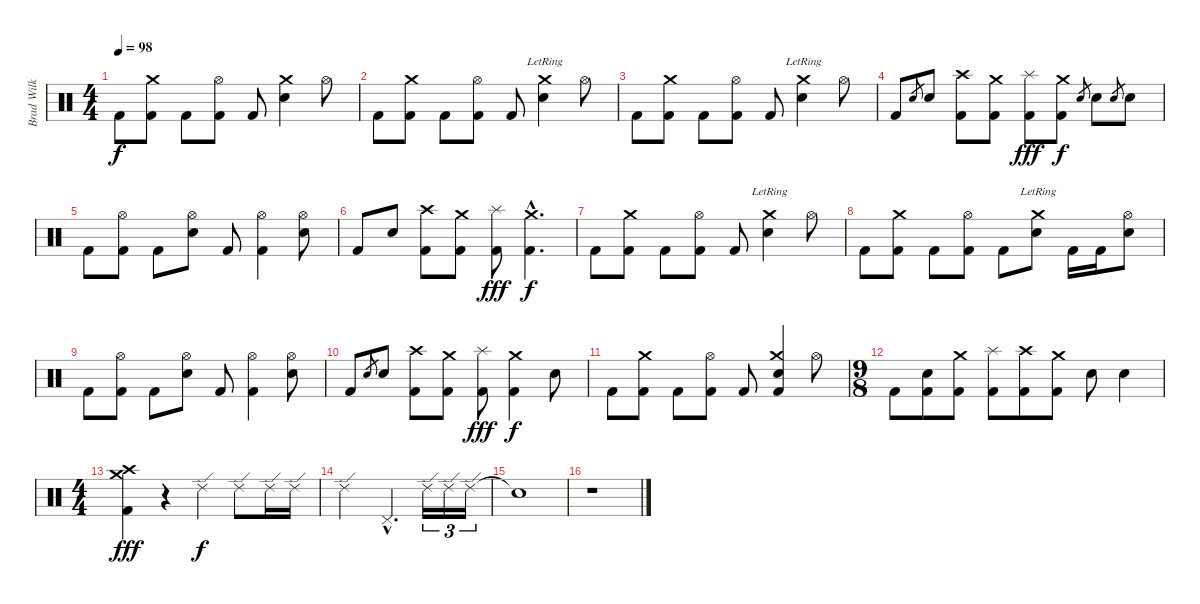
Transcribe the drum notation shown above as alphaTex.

\track ("Brad Wilk" "Brad Wilk") {instrument percussion}
\staff {score}
\articulation defaults
\ts (4 4)
\tempo 98
\clef neutral
\ks c "Kick (hit) 2".8{dy f}
("Crash medium (hit)" "Kick (hit) 2").8 "Kick (hit) 2".8 ("Hi-Hat (open)" "Kick (hit) 2").8 "Kick (hit) 2".8 ("Crash medium (hit)" "Electric Snare (hit)").4 "Hi-Hat (open)".8 |
"Kick (hit) 2".8 ("Crash medium (hit)" "Kick (hit) 2").8 "Kick (hit) 2".8 ("Hi-Hat (open)" "Kick (hit) 2").8 "Kick (hit) 2".8 ("Crash medium (hit)" "Electric Snare (hit)"{lr}).4 "Hi-Hat (open)".8 |
"Kick (hit) 2".8 ("Crash medium (hit)" "Kick (hit) 2").8 "Kick (hit) 2".8 ("Hi-Hat (open)" "Kick (hit) 2").8 "Kick (hit) 2".8 ("Crash medium (hit)" "Electric Snare (hit)"{lr}).4 "Hi-Hat (open)".8 |
"Kick (hit) 2".8 "Electric Snare (hit)".8{gr} "Electric Snare (hit)".8 ("Crash high (hit)" "Kick (hit) 2").8 ("Crash medium (hit)" "Kick (hit) 2").8 ("Splash (hit)" "Kick (hit) 2").8{dy fff} ("Crash medium (hit)" "Kick (hit) 2").8{dy f} "Electric Snare (hit)".8{gr} "Electric Snare (hit)".8 "Electric Snare (hit)".8{gr} "Electric Snare (hit)".8 |
"Kick (hit) 2".8 ("Hi-Hat (open)" "Kick (hit) 2").8 "Kick (hit) 2".8 ("Hi-Hat (open)" "Electric Snare (hit)").8 "Kick (hit) 2".8 ("Hi-Hat (open)" "Kick (hit) 2").4 ("Hi-Hat (open)" "Electric Snare (hit)").8 |
"Kick (hit) 2".8 "Electric Snare (hit)".8 ("Crash high (hit)" "Kick (hit) 2").8 ("Crash medium (hit)" "Kick (hit) 2").8 ("Splash (hit)" "Kick (hit) 2").8{dy fff} ("Crash medium (hit)"{hac} "Kick (hit) 2"{hac}).4{d dy f} |
"Kick (hit) 2".8 ("Crash medium (hit)" "Kick (hit) 2").8 "Kick (hit) 2".8 ("Hi-Hat (open)" "Kick (hit) 2").8 "Kick (hit) 2".8 ("Crash medium (hit)" "Electric Snare (hit)"{lr}).4 "Hi-Hat (open)".8 |
"Kick (hit) 2".8 ("Crash medium (hit)" "Kick (hit) 2").8 "Kick (hit) 2".8 ("Hi-Hat (open)" "Kick (hit) 2").8 "Kick (hit) 2".8 ("Crash medium (hit)" "Electric Snare (hit)"{lr}).8 "Kick (hit) 2".16 "Kick (hit) 2".16 ("Hi-Hat (open)" "Electric Snare (hit)").8 |
"Kick (hit) 2".8 ("Hi-Hat (open)" "Kick (hit) 2").8 "Kick (hit) 2".8 ("Hi-Hat (open)" "Electric Snare (hit)").8 "Kick (hit) 2".8 ("Hi-Hat (open)" "Kick (hit) 2").4 ("Hi-Hat (open)" "Electric Snare (hit)").8 |
"Kick (hit) 2".8 "Electric Snare (hit)".8{gr} "Electric Snare (hit)".8 ("Crash high (hit)" "Kick (hit) 2").8 ("Crash medium (hit)" "Kick (hit) 2").8 ("Splash (hit)" "Kick (hit) 2").8{dy fff} ("Crash medium (hit)" "Kick (hit) 2").4{dy f} "Electric Snare (hit)".8 |
"Kick (hit) 2".8 ("Crash medium (hit)" "Kick (hit) 2").8 "Kick (hit) 2".8 ("Hi-Hat (open)" "Kick (hit) 2").8 "Kick (hit) 2".8 ("Crash medium (hit)" "Electric Snare (hit)" "Kick (hit) 2").4 "Hi-Hat (open)".8 |
\ts (9 8)
"Kick (hit) 2".8 ("Electric Snare (hit)" "Kick (hit) 2").8 ("Crash medium (hit)" "Kick (hit) 2").8 ("Splash (hit)" "Kick (hit) 2").8 ("Crash high (hit)" "Kick (hit) 2").8 ("Crash medium (hit)" "Kick (hit) 2").8 "Electric Snare (hit)".8 "Electric Snare (hit)".4 |
\ts (4 4)
("Crash medium (hit)" "Crash high (hit)" "Kick (hit) 2").4{dy fff} r.4 "Ride (edge) 2".4{dy f} "Ride (edge) 2".8 "Ride (edge) 2".16 "Ride (edge) 2".16 |
"Ride (edge) 2".2 "Pedal Hi-Hat (hit)"{hac}.4{d} "Ride (edge) 2".16{tu (3 2)} "Ride (edge) 2".16{tu (3 2)} "Ride (edge) 2".16{tu (3 2)} |
"Snare (hit)"{t}.1 |
r.1
